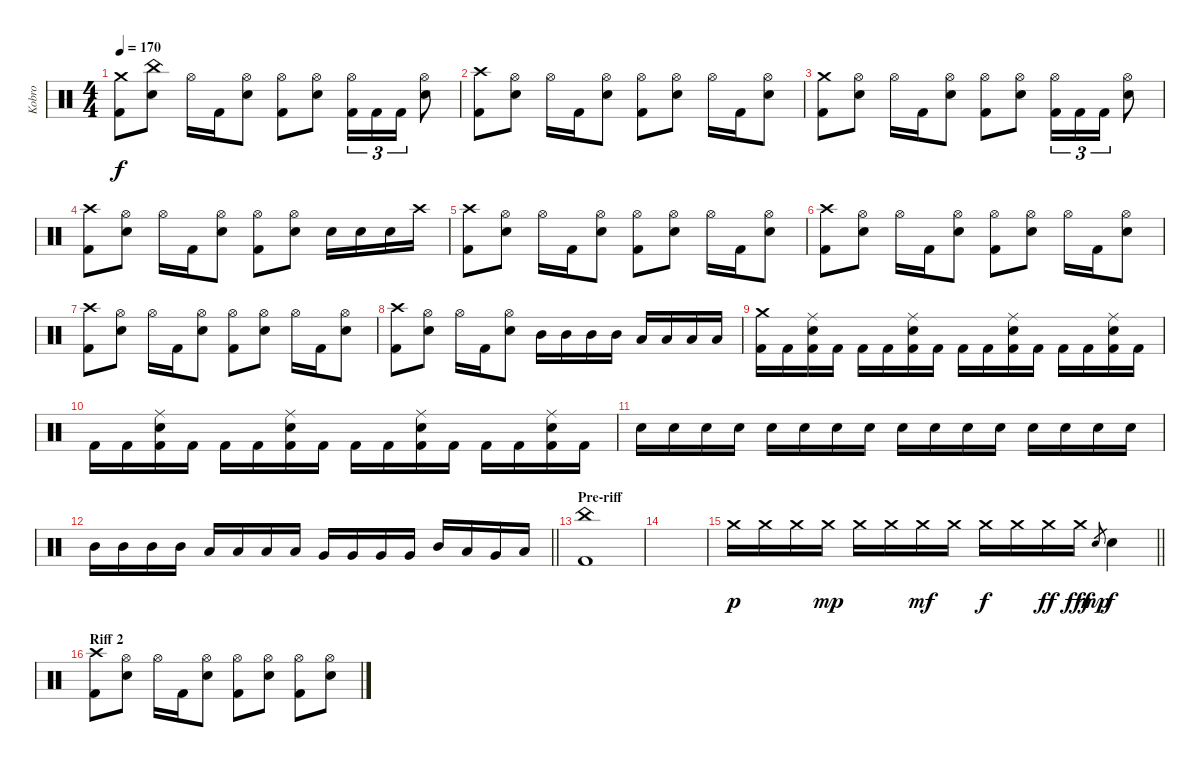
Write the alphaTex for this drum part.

\track ("Kobro" "Kobro") {instrument percussion}
\staff {score}
\articulation defaults
\ts (4 4)
\tempo 170
\clef neutral
\ks c
("Crash medium (hit)" "Kick (hit) 2").8{dy f} ("China (hit)" "Electric Snare (hit)").8 "Hi-Hat (open)".16 "Kick (hit) 2".16 ("Hi-Hat (open)" "Electric Snare (hit)").8 ("Hi-Hat (open)" "Kick (hit) 2").8 ("Hi-Hat (open)" "Electric Snare (hit)").8 ("Hi-Hat (open)" "Kick (hit) 2").16{tu (3 2)} "Kick (hit) 2".16{tu (3 2)} "Kick (hit) 2".16{tu (3 2)} ("Hi-Hat (open)" "Electric Snare (hit)").8 |
("Crash high (hit)" "Kick (hit) 2").8 ("Hi-Hat (open)" "Electric Snare (hit)").8 "Hi-Hat (open)".16 "Kick (hit) 2".16 ("Hi-Hat (open)" "Electric Snare (hit)").8 ("Hi-Hat (open)" "Kick (hit) 2").8 ("Hi-Hat (open)" "Electric Snare (hit)").8 "Hi-Hat (open)".16 "Kick (hit) 2".16 ("Hi-Hat (open)" "Electric Snare (hit)").8 |
("Crash medium (hit)" "Kick (hit) 2").8 ("Hi-Hat (open)" "Electric Snare (hit)").8 "Hi-Hat (open)".16 "Kick (hit) 2".16 ("Hi-Hat (open)" "Electric Snare (hit)").8 ("Hi-Hat (open)" "Kick (hit) 2").8 ("Hi-Hat (open)" "Electric Snare (hit)").8 ("Hi-Hat (open)" "Kick (hit) 2").16{tu (3 2)} "Kick (hit) 2".16{tu (3 2)} "Kick (hit) 2".16{tu (3 2)} ("Hi-Hat (open)" "Electric Snare (hit)").8 |
("Crash high (hit)" "Kick (hit) 2").8 ("Hi-Hat (open)" "Electric Snare (hit)").8 "Hi-Hat (open)".16 "Kick (hit) 2".16 ("Hi-Hat (open)" "Electric Snare (hit)").8 ("Hi-Hat (open)" "Kick (hit) 2").8 ("Hi-Hat (open)" "Electric Snare (hit)").8 "Electric Snare (hit)".16 "Electric Snare (hit)".16 "Electric Snare (hit)".16 "Crash high (hit)".16 |
("Crash high (hit)" "Kick (hit) 2").8 ("Hi-Hat (open)" "Electric Snare (hit)").8 "Hi-Hat (open)".16 "Kick (hit) 2".16 ("Hi-Hat (open)" "Electric Snare (hit)").8 ("Hi-Hat (open)" "Kick (hit) 2").8 ("Hi-Hat (open)" "Electric Snare (hit)").8 "Hi-Hat (open)".16 "Kick (hit) 2".16 ("Hi-Hat (open)" "Electric Snare (hit)").8 |
("Crash high (hit)" "Kick (hit) 2").8 ("Hi-Hat (open)" "Electric Snare (hit)").8 "Hi-Hat (open)".16 "Kick (hit) 2".16 ("Hi-Hat (open)" "Electric Snare (hit)").8 ("Hi-Hat (open)" "Kick (hit) 2").8 ("Hi-Hat (open)" "Electric Snare (hit)").8 "Hi-Hat (open)".16 "Kick (hit) 2".16 ("Hi-Hat (open)" "Electric Snare (hit)").8 |
("Crash high (hit)" "Kick (hit) 2").8 ("Hi-Hat (open)" "Electric Snare (hit)").8 "Hi-Hat (open)".16 "Kick (hit) 2".16 ("Hi-Hat (open)" "Electric Snare (hit)").8 ("Hi-Hat (open)" "Kick (hit) 2").8 ("Hi-Hat (open)" "Electric Snare (hit)").8 "Hi-Hat (open)".16 "Kick (hit) 2".16 ("Hi-Hat (open)" "Electric Snare (hit)").8 |
("Crash high (hit)" "Kick (hit) 2").8 ("Hi-Hat (open)" "Electric Snare (hit)").8 "Hi-Hat (open)".16 "Kick (hit) 2".16 ("Hi-Hat (open)" "Electric Snare (hit)").8 "Mid Tom (hit)".16 "Mid Tom (hit)".16 "Mid Tom (hit)".16 "Mid Tom (hit)".16 "Low Tom (hit)".16 "Low Tom (hit)".16 "Low Tom (hit)".16 "Low Tom (hit)".16 |
("Crash medium (hit)" "Kick (hit) 2").16 "Kick (hit) 2".16 ("Ride (middle)" "Electric Snare (hit)" "Kick (hit) 2").16 "Kick (hit) 2".16 "Kick (hit) 2".16 "Kick (hit) 2".16 ("Ride (middle)" "Electric Snare (hit)" "Kick (hit) 2").16 "Kick (hit) 2".16 "Kick (hit) 2".16 "Kick (hit) 2".16 ("Ride (middle)" "Electric Snare (hit)" "Kick (hit) 2").16 "Kick (hit) 2".16 "Kick (hit) 2".16 "Kick (hit) 2".16 ("Ride (middle)" "Electric Snare (hit)" "Kick (hit) 2").16 "Kick (hit) 2".16 |
"Kick (hit) 2".16 "Kick (hit) 2".16 ("Ride (middle)" "Electric Snare (hit)" "Kick (hit) 2").16 "Kick (hit) 2".16 "Kick (hit) 2".16 "Kick (hit) 2".16 ("Ride (middle)" "Electric Snare (hit)" "Kick (hit) 2").16 "Kick (hit) 2".16 "Kick (hit) 2".16 "Kick (hit) 2".16 ("Ride (middle)" "Electric Snare (hit)" "Kick (hit) 2").16 "Kick (hit) 2".16 "Kick (hit) 2".16 "Kick (hit) 2".16 ("Ride (middle)" "Electric Snare (hit)" "Kick (hit) 2").16 "Kick (hit) 2".16 |
"Electric Snare (hit)".16 "Electric Snare (hit)".16 "Electric Snare (hit)".16 "Electric Snare (hit)".16 "Electric Snare (hit)".16 "Electric Snare (hit)".16 "Electric Snare (hit)".16 "Electric Snare (hit)".16 "Electric Snare (hit)".16 "Electric Snare (hit)".16 "Electric Snare (hit)".16 "Electric Snare (hit)".16 "Electric Snare (hit)".16 "Electric Snare (hit)".16 "Electric Snare (hit)".16 "Electric Snare (hit)".16 |
\barLineRight lightlight "Mid Tom (hit)".16 "Mid Tom (hit)".16 "Mid Tom (hit)".16 "Mid Tom (hit)".16 "Low Tom (hit)".16 "Low Tom (hit)".16 "Low Tom (hit)".16 "Low Tom (hit)".16 "Very Low Tom (hit)".16 "Very Low Tom (hit)".16 "Very Low Tom (hit)".16 "Very Low Tom (hit)".16 "Mid Tom (hit)".16 "Low Tom (hit)".16 "Very Low Tom (hit)".16 "Low Floor Tom (hit)".16
|
\section ("" "Pre-riff")
("China (hit)" "Kick (hit) 2").1 |
|
\barLineRight lightlight "Crash medium (hit)".16{dy p} "Crash medium (hit)".16 "Crash medium (hit)".16 "Crash medium (hit)".16{dy mp} "Crash medium (hit)".16 "Crash medium (hit)".16 "Crash medium (hit)".16{dy mf} "Crash medium (hit)".16 "Crash medium (hit)".16{dy f} "Crash medium (hit)".16 "Crash medium (hit)".16{dy ff} "Crash medium (hit)".16{dy fff} "Electric Snare (hit)".8{gr dy mp} "Electric Snare (hit)".4{dy f}
|
\section ("" "Riff 2")
("Crash high (hit)" "Kick (hit) 2").8 ("Hi-Hat (open)" "Electric Snare (hit)").8 "Hi-Hat (open)".16 "Kick (hit) 2".16 ("Hi-Hat (open)" "Electric Snare (hit)").8 ("Hi-Hat (open)" "Kick (hit) 2").8 ("Hi-Hat (open)" "Electric Snare (hit)").8 ("Hi-Hat (open)" "Kick (hit) 2").8 ("Hi-Hat (open)" "Electric Snare (hit)").8
